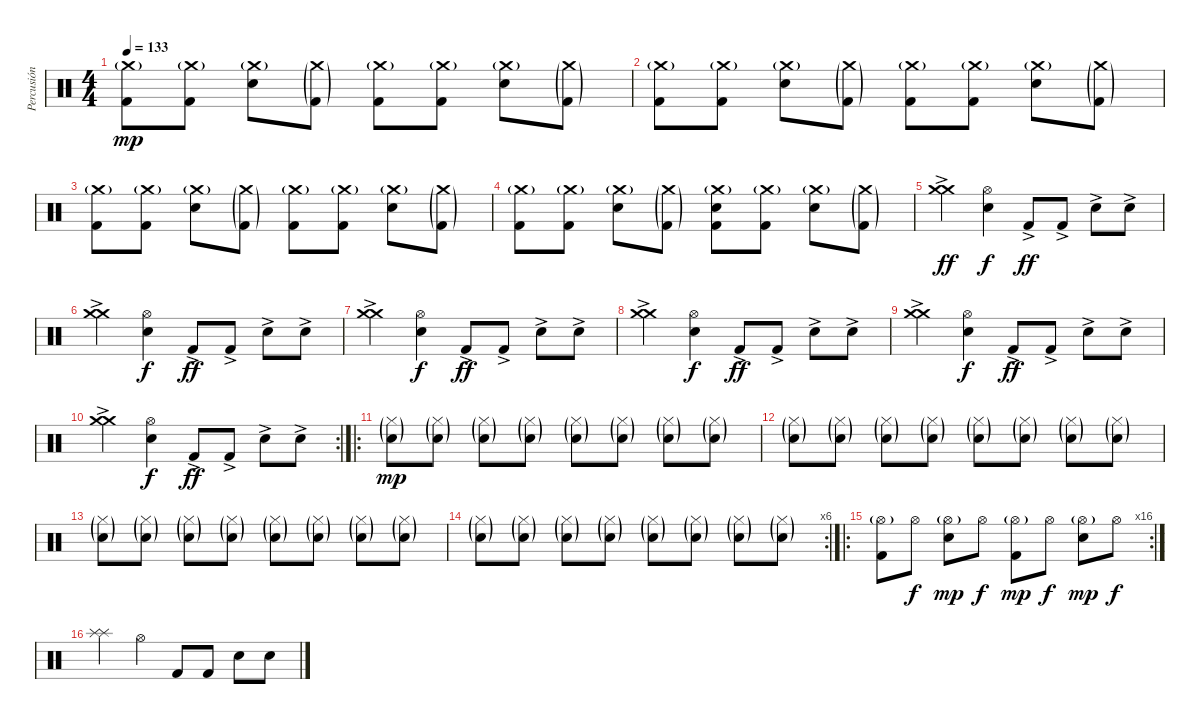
\track ("Percusión" "Percusión") {instrument percussion}
\staff {score}
\articulation defaults
\ts (4 4)
\tempo 133
\clef neutral
\ks c
("Crash medium (hit)"{g} "Kick (hit) 2").8{dy mp} ("Crash medium (hit)"{g} "Kick (hit) 2").8 ("Crash medium (hit)"{g} "Electric Snare (hit)").8 ("Crash medium (hit)"{g} "Kick (hit) 2"{g}).8 ("Crash medium (hit)"{g} "Kick (hit) 2").8 ("Crash medium (hit)"{g} "Kick (hit) 2").8 ("Crash medium (hit)"{g} "Electric Snare (hit)").8 ("Crash medium (hit)"{g} "Kick (hit) 2"{g}).8 |
("Crash medium (hit)"{g} "Kick (hit) 2").8 ("Crash medium (hit)"{g} "Kick (hit) 2").8 ("Crash medium (hit)"{g} "Electric Snare (hit)").8 ("Crash medium (hit)"{g} "Kick (hit) 2"{g}).8 ("Crash medium (hit)"{g} "Kick (hit) 2").8 ("Crash medium (hit)"{g} "Kick (hit) 2").8 ("Crash medium (hit)"{g} "Electric Snare (hit)").8 ("Crash medium (hit)"{g} "Kick (hit) 2"{g}).8 |
("Crash medium (hit)"{g} "Kick (hit) 2").8 ("Crash medium (hit)"{g} "Kick (hit) 2").8 ("Crash medium (hit)"{g} "Electric Snare (hit)").8 ("Crash medium (hit)"{g} "Kick (hit) 2"{g}).8 ("Crash medium (hit)"{g} "Kick (hit) 2").8 ("Crash medium (hit)"{g} "Kick (hit) 2").8 ("Crash medium (hit)"{g} "Electric Snare (hit)").8 ("Crash medium (hit)"{g} "Kick (hit) 2"{g}).8 |
("Crash medium (hit)"{g} "Kick (hit) 2").8 ("Crash medium (hit)"{g} "Kick (hit) 2").8 ("Crash medium (hit)"{g} "Electric Snare (hit)").8 ("Crash medium (hit)"{g} "Kick (hit) 2"{g}).8 ("Crash medium (hit)"{g} "Electric Snare (hit)" "Kick (hit) 2").8 ("Crash medium (hit)"{g} "Kick (hit) 2").8 ("Crash medium (hit)"{g} "Electric Snare (hit)").8 ("Crash medium (hit)"{g} "Kick (hit) 2"{g}).8 |
("Crash medium (hit)"{ac} "Crash medium (hit)"{ac}).4{dy ff} ("Hi-Hat (open)" "Electric Snare (hit)").4{dy f} "Kick (hit) 2"{ac}.8{dy ff} "Kick (hit) 2"{ac}.8 "Electric Snare (hit)"{ac}.8 "Electric Snare (hit)"{ac}.8 |
("Crash medium (hit)"{ac} "Crash medium (hit)"{ac}).4 ("Hi-Hat (open)" "Electric Snare (hit)").4{dy f} "Kick (hit) 2"{ac}.8{dy ff} "Kick (hit) 2"{ac}.8 "Electric Snare (hit)"{ac}.8 "Electric Snare (hit)"{ac}.8 |
("Crash medium (hit)"{ac} "Crash medium (hit)"{ac}).4 ("Hi-Hat (open)" "Electric Snare (hit)").4{dy f} "Kick (hit) 2"{ac}.8{dy ff} "Kick (hit) 2"{ac}.8 "Electric Snare (hit)"{ac}.8 "Electric Snare (hit)"{ac}.8 |
("Crash medium (hit)"{ac} "Crash medium (hit)"{ac}).4 ("Hi-Hat (open)" "Electric Snare (hit)").4{dy f} "Kick (hit) 2"{ac}.8{dy ff} "Kick (hit) 2"{ac}.8 "Electric Snare (hit)"{ac}.8 "Electric Snare (hit)"{ac}.8 |
("Crash medium (hit)"{ac} "Crash medium (hit)"{ac}).4 ("Hi-Hat (open)" "Electric Snare (hit)").4{dy f} "Kick (hit) 2"{ac}.8{dy ff} "Kick (hit) 2"{ac}.8 "Electric Snare (hit)"{ac}.8 "Electric Snare (hit)"{ac}.8 |
\rc 2
("Crash medium (hit)"{ac} "Crash medium (hit)"{ac}).4 ("Hi-Hat (open)" "Electric Snare (hit)").4{dy f} "Kick (hit) 2"{ac}.8{dy ff} "Kick (hit) 2"{ac}.8 "Electric Snare (hit)"{ac}.8 "Electric Snare (hit)"{ac}.8 |
\ro
("Electric Snare (hit)"{g} "Hi-Hat (closed)"{g}).8{dy mp} ("Electric Snare (hit)"{g} "Hi-Hat (closed)"{g}).8 ("Electric Snare (hit)"{g} "Hi-Hat (closed)"{g}).8 ("Electric Snare (hit)"{g} "Hi-Hat (closed)"{g}).8 ("Electric Snare (hit)"{g} "Hi-Hat (closed)"{g}).8 ("Electric Snare (hit)"{g} "Hi-Hat (closed)"{g}).8 ("Electric Snare (hit)"{g} "Hi-Hat (closed)"{g}).8 ("Electric Snare (hit)"{g} "Hi-Hat (closed)"{g}).8 |
("Electric Snare (hit)"{g} "Hi-Hat (closed)"{g}).8 ("Electric Snare (hit)"{g} "Hi-Hat (closed)"{g}).8 ("Electric Snare (hit)"{g} "Hi-Hat (closed)"{g}).8 ("Electric Snare (hit)"{g} "Hi-Hat (closed)"{g}).8 ("Electric Snare (hit)"{g} "Hi-Hat (closed)"{g}).8 ("Electric Snare (hit)"{g} "Hi-Hat (closed)"{g}).8 ("Electric Snare (hit)"{g} "Hi-Hat (closed)"{g}).8 ("Electric Snare (hit)"{g} "Hi-Hat (closed)"{g}).8 |
("Electric Snare (hit)"{g} "Hi-Hat (closed)"{g}).8 ("Electric Snare (hit)"{g} "Hi-Hat (closed)"{g}).8 ("Electric Snare (hit)"{g} "Hi-Hat (closed)"{g}).8 ("Electric Snare (hit)"{g} "Hi-Hat (closed)"{g}).8 ("Electric Snare (hit)"{g} "Hi-Hat (closed)"{g}).8 ("Electric Snare (hit)"{g} "Hi-Hat (closed)"{g}).8 ("Electric Snare (hit)"{g} "Hi-Hat (closed)"{g}).8 ("Electric Snare (hit)"{g} "Hi-Hat (closed)"{g}).8 |
\rc 6
("Electric Snare (hit)"{g} "Hi-Hat (closed)"{g}).8 ("Electric Snare (hit)"{g} "Hi-Hat (closed)"{g}).8 ("Electric Snare (hit)"{g} "Hi-Hat (closed)"{g}).8 ("Electric Snare (hit)"{g} "Hi-Hat (closed)"{g}).8 ("Electric Snare (hit)"{g} "Hi-Hat (closed)"{g}).8 ("Electric Snare (hit)"{g} "Hi-Hat (closed)"{g}).8 ("Electric Snare (hit)"{g} "Hi-Hat (closed)"{g}).8 ("Electric Snare (hit)"{g} "Hi-Hat (closed)"{g}).8 |
\ro
\rc 16
("Kick (hit) 2" "Hi-Hat (open)"{g}).8 "Hi-Hat (open)".8{dy f} ("Electric Snare (hit)" "Hi-Hat (open)"{g}).8{dy mp} "Hi-Hat (open)".8{dy f} ("Kick (hit) 2" "Hi-Hat (open)"{g}).8{dy mp} "Hi-Hat (open)".8{dy f} ("Electric Snare (hit)" "Hi-Hat (open)"{g}).8{dy mp} "Hi-Hat (open)".8{dy f} |
("Splash (hit)" "Splash (hit)").4 "Hi-Hat (open)".4 "Kick (hit) 2".8 "Kick (hit) 2".8 "Hand Clap (hit)".8 "Hand Clap (hit)".8
